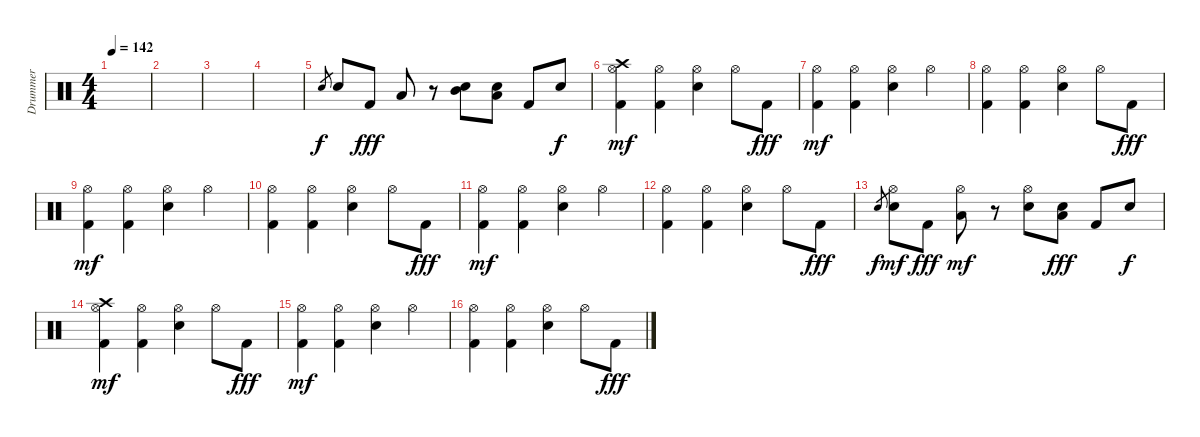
\track ("Drummer" "Drummer") {instrument percussion}
\staff {score}
\articulation defaults
\ts (4 4)
\tempo 142
\clef neutral
\ks c
|
|
|
|
"Electric Snare (hit)".8{gr} "Electric Snare (hit)".8 "Kick (hit) 2".8{dy fff} "Low Tom (hit)".8 r.8 ("Electric Snare (hit)" "Mid Tom (hit)").8 ("Electric Snare (hit)" "Low Tom (hit)").8 "Kick (hit) 2".8 "Electric Snare (hit)".8{dy f} |
("Kick (hit) 2" "Hi-Hat (open)" "Crash high (hit)").4{dy mf} ("Kick (hit) 2" "Hi-Hat (open)").4 ("Electric Snare (hit)" "Hi-Hat (open)").4 "Hi-Hat (open)".8 "Kick (hit) 2".8{dy fff} |
("Kick (hit) 2" "Hi-Hat (open)").4{dy mf} ("Kick (hit) 2" "Hi-Hat (open)").4 ("Electric Snare (hit)" "Hi-Hat (open)").4 "Hi-Hat (open)".4 |
("Kick (hit) 2" "Hi-Hat (open)").4 ("Kick (hit) 2" "Hi-Hat (open)").4 ("Electric Snare (hit)" "Hi-Hat (open)").4 "Hi-Hat (open)".8 "Kick (hit) 2".8{dy fff} |
("Kick (hit) 2" "Hi-Hat (open)").4{dy mf} ("Kick (hit) 2" "Hi-Hat (open)").4 ("Electric Snare (hit)" "Hi-Hat (open)").4 "Hi-Hat (open)".4 |
("Kick (hit) 2" "Hi-Hat (open)").4 ("Kick (hit) 2" "Hi-Hat (open)").4 ("Electric Snare (hit)" "Hi-Hat (open)").4 "Hi-Hat (open)".8 "Kick (hit) 2".8{dy fff} |
("Kick (hit) 2" "Hi-Hat (open)").4{dy mf} ("Kick (hit) 2" "Hi-Hat (open)").4 ("Electric Snare (hit)" "Hi-Hat (open)").4 "Hi-Hat (open)".4 |
("Kick (hit) 2" "Hi-Hat (open)").4 ("Kick (hit) 2" "Hi-Hat (open)").4 ("Electric Snare (hit)" "Hi-Hat (open)").4 "Hi-Hat (open)".8 "Kick (hit) 2".8{dy fff} |
"Electric Snare (hit)".8{gr dy f} ("Electric Snare (hit)" "Hi-Hat (open)").8{dy mf} "Kick (hit) 2".8{dy fff} ("Low Tom (hit)" "Hi-Hat (open)").8{dy mf} r.8 ("Electric Snare (hit)" "Hi-Hat (open)").8 ("Electric Snare (hit)" "Low Tom (hit)").8{dy fff} "Kick (hit) 2".8 "Electric Snare (hit)".8{dy f} |
("Kick (hit) 2" "Hi-Hat (open)" "Crash high (hit)").4{dy mf} ("Kick (hit) 2" "Hi-Hat (open)").4 ("Electric Snare (hit)" "Hi-Hat (open)").4 "Hi-Hat (open)".8 "Kick (hit) 2".8{dy fff} |
("Kick (hit) 2" "Hi-Hat (open)").4{dy mf} ("Kick (hit) 2" "Hi-Hat (open)").4 ("Electric Snare (hit)" "Hi-Hat (open)").4 "Hi-Hat (open)".4 |
("Kick (hit) 2" "Hi-Hat (open)").4 ("Kick (hit) 2" "Hi-Hat (open)").4 ("Electric Snare (hit)" "Hi-Hat (open)").4 "Hi-Hat (open)".8 "Kick (hit) 2".8{dy fff}
